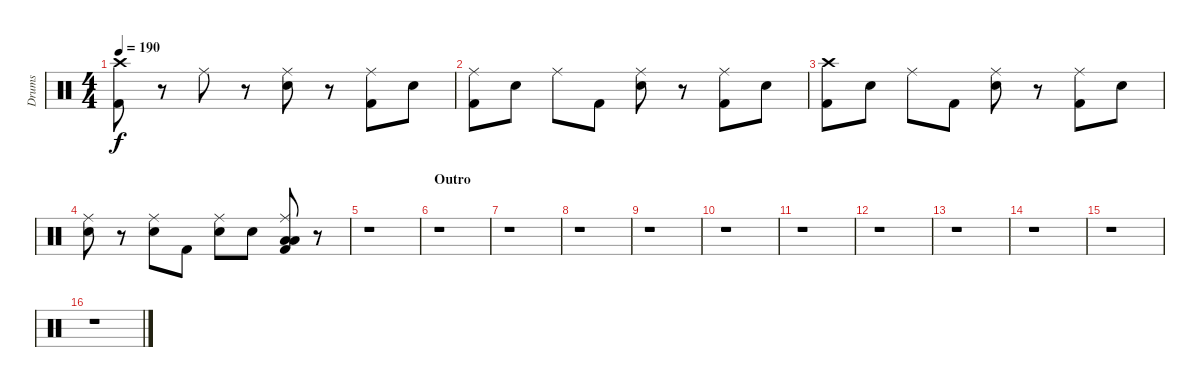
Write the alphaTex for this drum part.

\track ("Drums" "Drums") {instrument percussion}
\staff {score}
\articulation defaults
\ts (4 4)
\tempo 190
\clef neutral
\ks c
("Crash high (hit)" "Kick (hit) 2").8{dy f} r.8 "Ride (middle)".8 r.8 ("Ride (middle)" "Electric Snare (hit)").8 r.8 ("Ride (middle)" "Kick (hit) 2").8 "Electric Snare (hit)".8 |
("Ride (middle)" "Kick (hit) 2").8 "Electric Snare (hit)".8 "Ride (middle)".8 "Kick (hit) 2".8 ("Ride (middle)" "Electric Snare (hit)").8 r.8 ("Ride (middle)" "Kick (hit) 2").8 "Electric Snare (hit)".8 |
("Crash high (hit)" "Kick (hit) 2").8 "Electric Snare (hit)".8 "Ride (middle)".8 "Kick (hit) 2".8 ("Ride (middle)" "Electric Snare (hit)").8 r.8 ("Ride (middle)" "Kick (hit) 2").8 "Electric Snare (hit)".8 |
("Ride (middle)" "Electric Snare (hit)").8 r.8 ("Ride (middle)" "Electric Snare (hit)").8 "Kick (hit) 2".8 ("Ride (middle)" "Electric Snare (hit)").8 "Electric Snare (hit)".8 ("Ride (middle)" "Low Floor Tom (hit)" "Low Floor Tom (hit)" "Kick (hit) 2").8 r.8 |
r.1 |
\section ("" "Outro")
r.1 |
r.1 |
r.1 |
r.1 |
r.1 |
r.1 |
r.1 |
r.1 |
r.1 |
r.1 |
r.1
